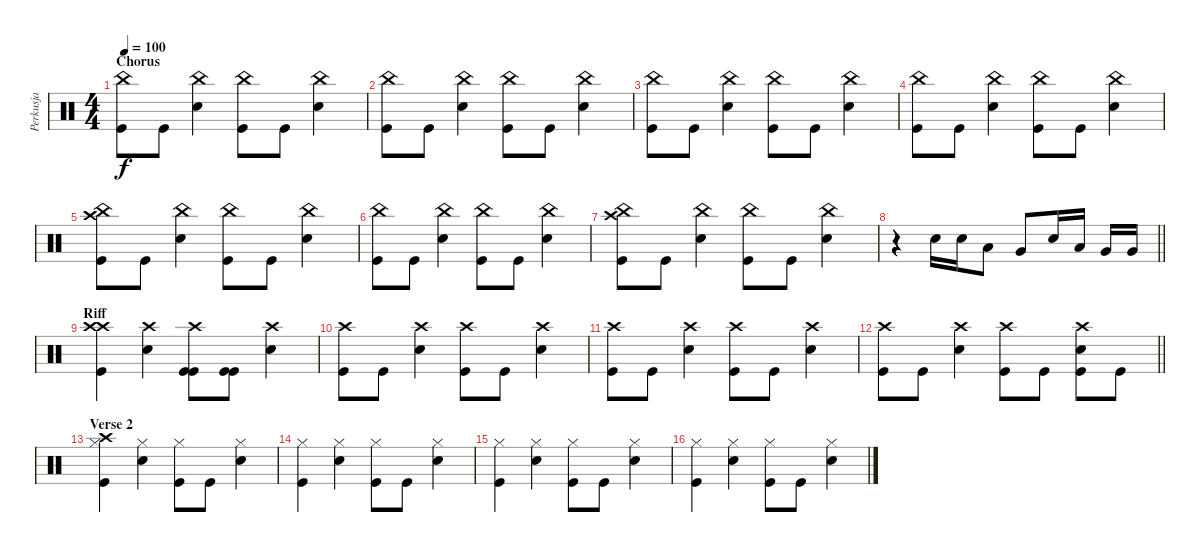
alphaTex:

\track ("Perkusja" "Perkusja") {instrument percussion}
\staff {score}
\articulation defaults
\ts (4 4)
\section ("" "Chorus")
\tempo 100
\clef neutral
\ks c
("China (hit)" "Kick (hit)").8{dy f} "Kick (hit)".8 ("China (hit)" "Snare (hit) 2").4 ("China (hit)" "Kick (hit)").8 "Kick (hit)".8 ("China (hit)" "Snare (hit) 2").4 |
("China (hit)" "Kick (hit)").8 "Kick (hit)".8 ("China (hit)" "Snare (hit) 2").4 ("China (hit)" "Kick (hit)").8 "Kick (hit)".8 ("China (hit)" "Snare (hit) 2").4 |
("China (hit)" "Kick (hit)").8 "Kick (hit)".8 ("China (hit)" "Snare (hit) 2").4 ("China (hit)" "Kick (hit)").8 "Kick (hit)".8 ("China (hit)" "Snare (hit) 2").4 |
("China (hit)" "Kick (hit)").8 "Kick (hit)".8 ("China (hit)" "Snare (hit) 2").4 ("China (hit)" "Kick (hit)").8 "Kick (hit)".8 ("China (hit)" "Snare (hit) 2").4 |
("China (hit)" "Kick (hit)" "Crash high (hit)").8 "Kick (hit)".8 ("China (hit)" "Snare (hit) 2").4 ("China (hit)" "Kick (hit)").8 "Kick (hit)".8 ("China (hit)" "Snare (hit) 2").4 |
("China (hit)" "Kick (hit)").8 "Kick (hit)".8 ("China (hit)" "Snare (hit) 2").4 ("China (hit)" "Kick (hit)").8 "Kick (hit)".8 ("China (hit)" "Snare (hit) 2").4 |
("China (hit)" "Kick (hit)" "Crash high (hit)").8 "Kick (hit)".8 ("China (hit)" "Snare (hit) 2").4 ("China (hit)" "Kick (hit)").8 "Kick (hit)".8 ("China (hit)" "Snare (hit) 2").4 |
\barLineRight lightlight
r.4 "Snare (hit) 2".16 "Snare (hit) 2".16 "Low Tom (hit)".8 "Very Low Tom (hit)".8 "Snare (hit) 2".16 "Low Tom (hit)".16 "Very Low Tom (hit)".16 "Very Low Tom (hit)".16 |
\section ("" "Riff")
("Crash high (hit)" "Kick (hit)" "Crash high (hit)").4 ("Crash high (hit)" "Snare (hit) 2").4 ("Crash high (hit)" "Kick (hit)" "Kick (hit)").8 ("Kick (hit)" "Kick (hit)").8 ("Crash high (hit)" "Snare (hit) 2").4 |
("Crash high (hit)" "Kick (hit)").8 "Kick (hit)".8 ("Crash high (hit)" "Snare (hit) 2").4 ("Crash high (hit)" "Kick (hit)").8 "Kick (hit)".8 ("Crash high (hit)" "Snare (hit) 2").4 |
("Crash high (hit)" "Kick (hit)").8 "Kick (hit)".8 ("Crash high (hit)" "Snare (hit) 2").4 ("Crash high (hit)" "Kick (hit)").8 "Kick (hit)".8 ("Crash high (hit)" "Snare (hit) 2").4 |
\barLineRight lightlight
("Crash high (hit)" "Kick (hit)").8 "Kick (hit)".8 ("Crash high (hit)" "Snare (hit) 2").4 ("Crash high (hit)" "Kick (hit)").8 "Kick (hit)".8 ("Crash high (hit)" "Snare (hit) 2" "Kick (hit)").8 "Kick (hit)".8 |
\section ("" "Verse 2")
("Hi-Hat (closed)" "Kick (hit)" "Crash high (hit)").4 ("Hi-Hat (closed)" "Snare (hit) 2").4 ("Hi-Hat (closed)" "Kick (hit)").8 "Kick (hit)".8 ("Hi-Hat (closed)" "Snare (hit) 2").4 |
("Hi-Hat (closed)" "Kick (hit)").4 ("Hi-Hat (closed)" "Snare (hit) 2").4 ("Hi-Hat (closed)" "Kick (hit)").8 "Kick (hit)".8 ("Hi-Hat (closed)" "Snare (hit) 2").4 |
("Hi-Hat (closed)" "Kick (hit)").4 ("Hi-Hat (closed)" "Snare (hit) 2").4 ("Hi-Hat (closed)" "Kick (hit)").8 "Kick (hit)".8 ("Hi-Hat (closed)" "Snare (hit) 2").4 |
("Hi-Hat (closed)" "Kick (hit)").4 ("Hi-Hat (closed)" "Snare (hit) 2").4 ("Hi-Hat (closed)" "Kick (hit)").8 "Kick (hit)".8 ("Hi-Hat (closed)" "Snare (hit) 2").4
